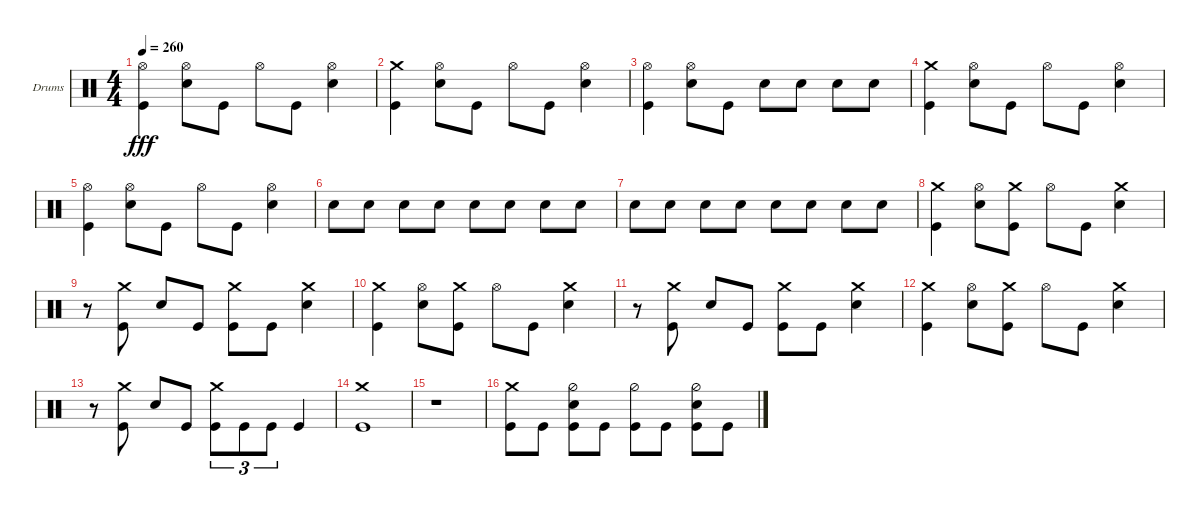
\defaultSystemsLayout 4
\bracketExtendMode groupsimilarinstruments
\firstSystemTrackNameOrientation horizontal
\otherSystemsTrackNameOrientation horizontal
\track ("Stefan Schwarzmann" "Drums") {instrument percussion}
\staff {score}
\articulation defaults
\ts (4 4)
\tempo 260
\clef neutral
\ks c
("Kick (hit)" "Hi-Hat (open)").4{dy fff} ("Snare (hit) 2" "Hi-Hat (open)").8 "Kick (hit)".8 "Hi-Hat (open)".8 "Kick (hit)".8 ("Snare (hit) 2" "Hi-Hat (open)").4 |
("Kick (hit)" "Crash medium (hit)").4 ("Snare (hit) 2" "Hi-Hat (open)").8 "Kick (hit)".8 "Hi-Hat (open)".8 "Kick (hit)".8 ("Snare (hit) 2" "Hi-Hat (open)").4 |
("Kick (hit)" "Hi-Hat (open)").4 ("Snare (hit) 2" "Hi-Hat (open)").8 "Kick (hit)".8 "Snare (hit) 2".8 "Snare (hit) 2".8 "Snare (hit) 2".8 "Snare (hit) 2".8 |
("Kick (hit)" "Crash medium (hit)").4 ("Snare (hit) 2" "Hi-Hat (open)").8 "Kick (hit)".8 "Hi-Hat (open)".8 "Kick (hit)".8 ("Snare (hit) 2" "Hi-Hat (open)").4 |
("Kick (hit)" "Hi-Hat (open)").4 ("Snare (hit) 2" "Hi-Hat (open)").8 "Kick (hit)".8 "Hi-Hat (open)".8 "Kick (hit)".8 ("Snare (hit) 2" "Hi-Hat (open)").4 |
"Snare (hit) 2".8 "Snare (hit) 2".8 "Snare (hit) 2".8 "Snare (hit) 2".8 "Snare (hit) 2".8 "Snare (hit) 2".8 "Snare (hit) 2".8 "Snare (hit) 2".8 |
"Snare (hit) 2".8 "Snare (hit) 2".8 "Snare (hit) 2".8 "Snare (hit) 2".8 "Snare (hit) 2".8 "Snare (hit) 2".8 "Snare (hit) 2".8 "Snare (hit) 2".8 |
("Kick (hit)" "Crash medium (hit)").4 ("Snare (hit) 2" "Hi-Hat (open)").8 ("Kick (hit)" "Crash medium (hit)").8 "Hi-Hat (open)".8 "Kick (hit)".8 ("Snare (hit) 2" "Crash medium (hit)").4 |
r.8 ("Kick (hit)" "Crash medium (hit)").8 "Snare (hit) 2".8 "Kick (hit)".8 ("Kick (hit)" "Crash medium (hit)").8 "Kick (hit)".8 ("Snare (hit) 2" "Crash medium (hit)").4 |
("Kick (hit)" "Crash medium (hit)").4 ("Snare (hit) 2" "Hi-Hat (open)").8 ("Kick (hit)" "Crash medium (hit)").8 "Hi-Hat (open)".8 "Kick (hit)".8 ("Snare (hit) 2" "Crash medium (hit)").4 |
r.8 ("Kick (hit)" "Crash medium (hit)").8 "Snare (hit) 2".8 "Kick (hit)".8 ("Kick (hit)" "Crash medium (hit)").8 "Kick (hit)".8 ("Snare (hit) 2" "Crash medium (hit)").4 |
("Kick (hit)" "Crash medium (hit)").4 ("Snare (hit) 2" "Hi-Hat (open)").8 ("Kick (hit)" "Crash medium (hit)").8 "Hi-Hat (open)".8 "Kick (hit)".8 ("Snare (hit) 2" "Crash medium (hit)").4 |
r.8 ("Kick (hit)" "Crash medium (hit)").8 "Snare (hit) 2".8 "Kick (hit)".8 ("Kick (hit)" "Crash medium (hit)").8{tu (3 2)} "Kick (hit)".8{tu (3 2)} "Kick (hit)".8{tu (3 2)} "Kick (hit)".4 |
("Kick (hit)" "Crash medium (hit)").1 |
r.1 |
("Kick (hit)" "Crash medium (hit)").8 "Kick (hit)".8 ("Kick (hit)" "Snare (hit) 2" "Hi-Hat (half)").8 "Kick (hit)".8 ("Kick (hit)" "Hi-Hat (half)").8 "Kick (hit)".8 ("Kick (hit)" "Snare (hit) 2" "Hi-Hat (half)").8 "Kick (hit)".8
